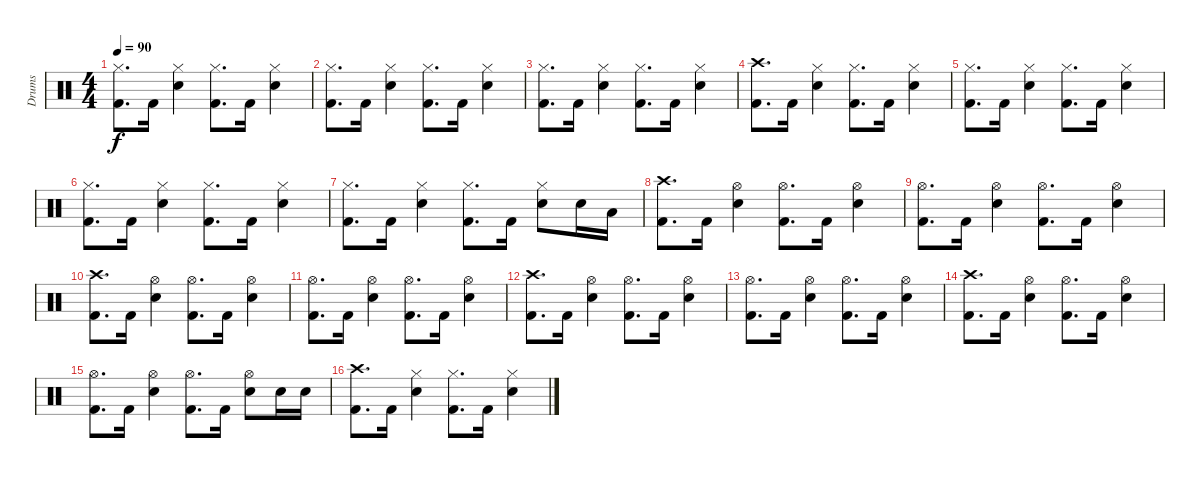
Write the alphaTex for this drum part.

\track ("Drums" "Drums") {instrument percussion}
\staff {score}
\articulation defaults
\ts (4 4)
\tempo 90
\clef neutral
\ks c
("Hi-Hat (closed)" "Kick (hit) 2").8{d dy f} "Kick (hit) 2".16 ("Hi-Hat (closed)" "Snare (hit) 2").4 ("Hi-Hat (closed)" "Kick (hit) 2").8{d} "Kick (hit) 2".16 ("Hi-Hat (closed)" "Snare (hit) 2").4 |
("Hi-Hat (closed)" "Kick (hit) 2").8{d} "Kick (hit) 2".16 ("Hi-Hat (closed)" "Snare (hit) 2").4 ("Hi-Hat (closed)" "Kick (hit) 2").8{d} "Kick (hit) 2".16 ("Hi-Hat (closed)" "Snare (hit) 2").4 |
("Hi-Hat (closed)" "Kick (hit) 2").8{d} "Kick (hit) 2".16 ("Hi-Hat (closed)" "Snare (hit) 2").4 ("Hi-Hat (closed)" "Kick (hit) 2").8{d} "Kick (hit) 2".16 ("Hi-Hat (closed)" "Snare (hit) 2").4 |
("Crash high (hit)" "Kick (hit) 2").8{d} "Kick (hit) 2".16 ("Hi-Hat (closed)" "Snare (hit) 2").4 ("Hi-Hat (closed)" "Kick (hit) 2").8{d} "Kick (hit) 2".16 ("Hi-Hat (closed)" "Snare (hit) 2").4 |
("Hi-Hat (closed)" "Kick (hit) 2").8{d} "Kick (hit) 2".16 ("Hi-Hat (closed)" "Snare (hit) 2").4 ("Hi-Hat (closed)" "Kick (hit) 2").8{d} "Kick (hit) 2".16 ("Hi-Hat (closed)" "Snare (hit) 2").4 |
("Hi-Hat (closed)" "Kick (hit) 2").8{d} "Kick (hit) 2".16 ("Hi-Hat (closed)" "Snare (hit) 2").4 ("Hi-Hat (closed)" "Kick (hit) 2").8{d} "Kick (hit) 2".16 ("Hi-Hat (closed)" "Snare (hit) 2").4 |
("Hi-Hat (closed)" "Kick (hit) 2").8{d} "Kick (hit) 2".16 ("Hi-Hat (closed)" "Snare (hit) 2").4 ("Hi-Hat (closed)" "Kick (hit) 2").8{d} "Kick (hit) 2".16 ("Hi-Hat (closed)" "Snare (hit) 2").8 "Snare (hit) 2".16 "Low Tom (hit)".16 |
("Crash high (hit)" "Kick (hit) 2").8{d} "Kick (hit) 2".16 ("Hi-Hat (open)" "Snare (hit) 2").4 ("Hi-Hat (open)" "Kick (hit) 2").8{d} "Kick (hit) 2".16 ("Hi-Hat (open)" "Snare (hit) 2").4 |
("Hi-Hat (open)" "Kick (hit) 2").8{d} "Kick (hit) 2".16 ("Hi-Hat (open)" "Snare (hit) 2").4 ("Hi-Hat (open)" "Kick (hit) 2").8{d} "Kick (hit) 2".16 ("Hi-Hat (open)" "Snare (hit) 2").4 |
("Crash high (hit)" "Kick (hit) 2").8{d} "Kick (hit) 2".16 ("Hi-Hat (open)" "Snare (hit) 2").4 ("Hi-Hat (open)" "Kick (hit) 2").8{d} "Kick (hit) 2".16 ("Hi-Hat (open)" "Snare (hit) 2").4 |
("Hi-Hat (open)" "Kick (hit) 2").8{d} "Kick (hit) 2".16 ("Hi-Hat (open)" "Snare (hit) 2").4 ("Hi-Hat (open)" "Kick (hit) 2").8{d} "Kick (hit) 2".16 ("Hi-Hat (open)" "Snare (hit) 2").4 |
("Crash high (hit)" "Kick (hit) 2").8{d} "Kick (hit) 2".16 ("Hi-Hat (open)" "Snare (hit) 2").4 ("Hi-Hat (open)" "Kick (hit) 2").8{d} "Kick (hit) 2".16 ("Hi-Hat (open)" "Snare (hit) 2").4 |
("Hi-Hat (open)" "Kick (hit) 2").8{d} "Kick (hit) 2".16 ("Hi-Hat (open)" "Snare (hit) 2").4 ("Hi-Hat (open)" "Kick (hit) 2").8{d} "Kick (hit) 2".16 ("Hi-Hat (open)" "Snare (hit) 2").4 |
("Crash high (hit)" "Kick (hit) 2").8{d} "Kick (hit) 2".16 ("Hi-Hat (open)" "Snare (hit) 2").4 ("Hi-Hat (open)" "Kick (hit) 2").8{d} "Kick (hit) 2".16 ("Hi-Hat (open)" "Snare (hit) 2").4 |
("Hi-Hat (open)" "Kick (hit) 2").8{d} "Kick (hit) 2".16 ("Hi-Hat (open)" "Snare (hit) 2").4 ("Hi-Hat (open)" "Kick (hit) 2").8{d} "Kick (hit) 2".16 ("Hi-Hat (open)" "Snare (hit) 2").8 "Snare (hit) 2".16 "Snare (hit) 2".16 |
("Crash high (hit)" "Kick (hit) 2").8{d} "Kick (hit) 2".16 ("Hi-Hat (closed)" "Snare (hit) 2").4 ("Hi-Hat (closed)" "Kick (hit) 2").8{d} "Kick (hit) 2".16 ("Hi-Hat (closed)" "Snare (hit) 2").4
